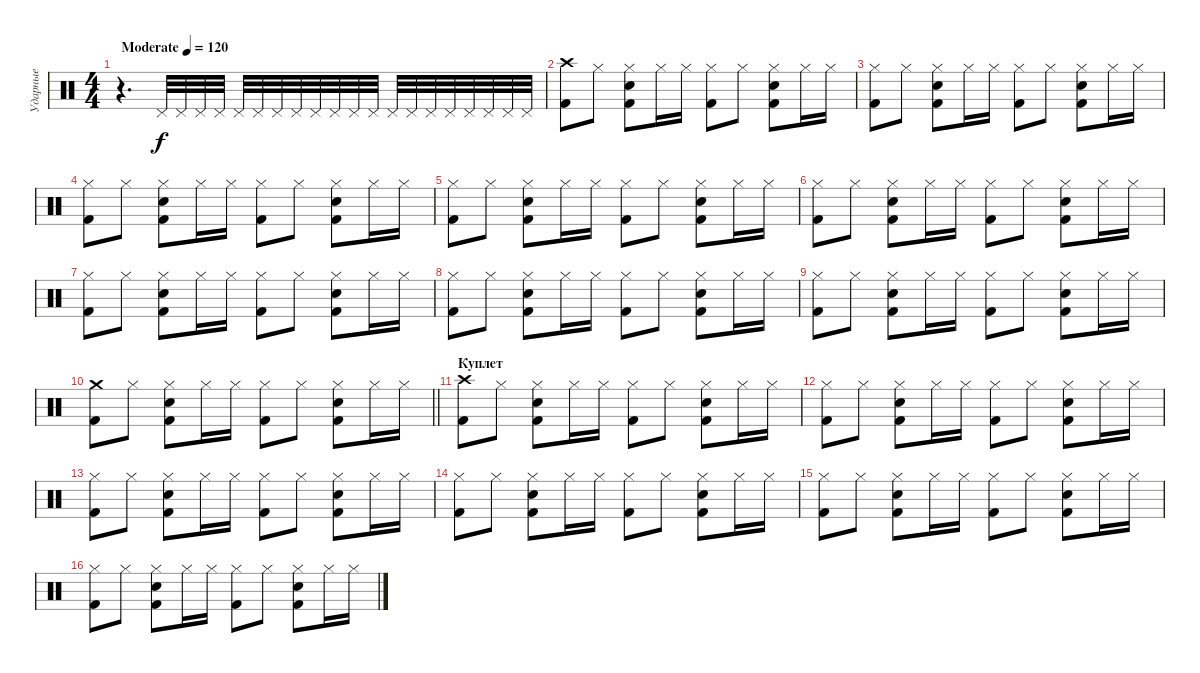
\track ("Ударные" "Ударные") {instrument percussion}
\staff {score}
\articulation defaults
\ts (4 4)
\tempo (120 "Moderate")
\clef neutral
\ks c
r.4{d dy f} "Pedal Hi-Hat (hit)".32{volume 4} "Pedal Hi-Hat (hit)".32{volume 4} "Pedal Hi-Hat (hit)".32 "Pedal Hi-Hat (hit)".32 "Pedal Hi-Hat (hit)".32{volume 5} "Pedal Hi-Hat (hit)".32 "Pedal Hi-Hat (hit)".32{volume 6} "Pedal Hi-Hat (hit)".32{volume 6} "Pedal Hi-Hat (hit)".32 "Pedal Hi-Hat (hit)".32{volume 7} "Pedal Hi-Hat (hit)".32{volume 8} "Pedal Hi-Hat (hit)".32{volume 9} "Pedal Hi-Hat (hit)".32{volume 10} "Pedal Hi-Hat (hit)".32{volume 10} "Pedal Hi-Hat (hit)".32{volume 11} "Pedal Hi-Hat (hit)".32 "Pedal Hi-Hat (hit)".32{volume 12} "Pedal Hi-Hat (hit)".32{volume 13} "Pedal Hi-Hat (hit)".32 "Pedal Hi-Hat (hit)".32 |
("Crash high (hit)" "Kick (hit) 2").8 "Hi-Hat (closed)".8 ("Hi-Hat (closed)" "Kick (hit) 2" "Electric Snare (hit)").8 "Hi-Hat (closed)".16 "Hi-Hat (closed)".16 ("Hi-Hat (closed)" "Kick (hit) 2").8 "Hi-Hat (closed)".8 ("Hi-Hat (closed)" "Kick (hit) 2" "Electric Snare (hit)").8 "Hi-Hat (closed)".16 "Hi-Hat (closed)".16 |
("Hi-Hat (closed)" "Kick (hit) 2").8 "Hi-Hat (closed)".8 ("Hi-Hat (closed)" "Kick (hit) 2" "Electric Snare (hit)").8 "Hi-Hat (closed)".16 "Hi-Hat (closed)".16 ("Hi-Hat (closed)" "Kick (hit) 2").8 "Hi-Hat (closed)".8 ("Hi-Hat (closed)" "Kick (hit) 2" "Electric Snare (hit)").8 "Hi-Hat (closed)".16 "Hi-Hat (closed)".16 |
("Hi-Hat (closed)" "Kick (hit) 2").8 "Hi-Hat (closed)".8 ("Hi-Hat (closed)" "Kick (hit) 2" "Electric Snare (hit)").8 "Hi-Hat (closed)".16 "Hi-Hat (closed)".16 ("Hi-Hat (closed)" "Kick (hit) 2").8 "Hi-Hat (closed)".8 ("Hi-Hat (closed)" "Kick (hit) 2" "Electric Snare (hit)").8 "Hi-Hat (closed)".16 "Hi-Hat (closed)".16 |
("Hi-Hat (closed)" "Kick (hit) 2").8 "Hi-Hat (closed)".8 ("Hi-Hat (closed)" "Kick (hit) 2" "Electric Snare (hit)").8 "Hi-Hat (closed)".16 "Hi-Hat (closed)".16 ("Hi-Hat (closed)" "Kick (hit) 2").8 "Hi-Hat (closed)".8 ("Hi-Hat (closed)" "Kick (hit) 2" "Electric Snare (hit)").8 "Hi-Hat (closed)".16 "Hi-Hat (closed)".16 |
("Hi-Hat (closed)" "Kick (hit) 2").8 "Hi-Hat (closed)".8 ("Hi-Hat (closed)" "Kick (hit) 2" "Electric Snare (hit)").8 "Hi-Hat (closed)".16 "Hi-Hat (closed)".16 ("Hi-Hat (closed)" "Kick (hit) 2").8 "Hi-Hat (closed)".8 ("Hi-Hat (closed)" "Kick (hit) 2" "Electric Snare (hit)").8 "Hi-Hat (closed)".16 "Hi-Hat (closed)".16 |
("Hi-Hat (closed)" "Kick (hit) 2").8 "Hi-Hat (closed)".8 ("Hi-Hat (closed)" "Kick (hit) 2" "Electric Snare (hit)").8 "Hi-Hat (closed)".16 "Hi-Hat (closed)".16 ("Hi-Hat (closed)" "Kick (hit) 2").8 "Hi-Hat (closed)".8 ("Hi-Hat (closed)" "Kick (hit) 2" "Electric Snare (hit)").8 "Hi-Hat (closed)".16 "Hi-Hat (closed)".16 |
("Hi-Hat (closed)" "Kick (hit) 2").8 "Hi-Hat (closed)".8 ("Hi-Hat (closed)" "Kick (hit) 2" "Electric Snare (hit)").8 "Hi-Hat (closed)".16 "Hi-Hat (closed)".16 ("Hi-Hat (closed)" "Kick (hit) 2").8 "Hi-Hat (closed)".8 ("Hi-Hat (closed)" "Kick (hit) 2" "Electric Snare (hit)").8 "Hi-Hat (closed)".16 "Hi-Hat (closed)".16 |
("Hi-Hat (closed)" "Kick (hit) 2").8 "Hi-Hat (closed)".8 ("Hi-Hat (closed)" "Kick (hit) 2" "Electric Snare (hit)").8 "Hi-Hat (closed)".16 "Hi-Hat (closed)".16 ("Hi-Hat (closed)" "Kick (hit) 2").8 "Hi-Hat (closed)".8 ("Hi-Hat (closed)" "Kick (hit) 2" "Electric Snare (hit)").8 "Hi-Hat (closed)".16 "Hi-Hat (closed)".16 |
\barLineRight lightlight
("Crash medium (hit)" "Kick (hit) 2").8 "Hi-Hat (closed)".8 ("Hi-Hat (closed)" "Kick (hit) 2" "Electric Snare (hit)").8 "Hi-Hat (closed)".16 "Hi-Hat (closed)".16 ("Hi-Hat (closed)" "Kick (hit) 2").8 "Hi-Hat (closed)".8 ("Hi-Hat (closed)" "Kick (hit) 2" "Electric Snare (hit)").8 "Hi-Hat (closed)".16 "Hi-Hat (closed)".16 |
\section ("" "Куплет")
("Crash high (hit)" "Kick (hit) 2").8 "Hi-Hat (closed)".8 ("Hi-Hat (closed)" "Kick (hit) 2" "Electric Snare (hit)").8 "Hi-Hat (closed)".16 "Hi-Hat (closed)".16 ("Hi-Hat (closed)" "Kick (hit) 2").8 "Hi-Hat (closed)".8 ("Hi-Hat (closed)" "Kick (hit) 2" "Electric Snare (hit)").8 "Hi-Hat (closed)".16 "Hi-Hat (closed)".16 |
("Hi-Hat (closed)" "Kick (hit) 2").8 "Hi-Hat (closed)".8 ("Hi-Hat (closed)" "Kick (hit) 2" "Electric Snare (hit)").8 "Hi-Hat (closed)".16 "Hi-Hat (closed)".16 ("Hi-Hat (closed)" "Kick (hit) 2").8 "Hi-Hat (closed)".8 ("Hi-Hat (closed)" "Kick (hit) 2" "Electric Snare (hit)").8 "Hi-Hat (closed)".16 "Hi-Hat (closed)".16 |
("Hi-Hat (closed)" "Kick (hit) 2").8 "Hi-Hat (closed)".8 ("Hi-Hat (closed)" "Kick (hit) 2" "Electric Snare (hit)").8 "Hi-Hat (closed)".16 "Hi-Hat (closed)".16 ("Hi-Hat (closed)" "Kick (hit) 2").8 "Hi-Hat (closed)".8 ("Hi-Hat (closed)" "Kick (hit) 2" "Electric Snare (hit)").8 "Hi-Hat (closed)".16 "Hi-Hat (closed)".16 |
("Hi-Hat (closed)" "Kick (hit) 2").8 "Hi-Hat (closed)".8 ("Hi-Hat (closed)" "Kick (hit) 2" "Electric Snare (hit)").8 "Hi-Hat (closed)".16 "Hi-Hat (closed)".16 ("Hi-Hat (closed)" "Kick (hit) 2").8 "Hi-Hat (closed)".8 ("Hi-Hat (closed)" "Kick (hit) 2" "Electric Snare (hit)").8 "Hi-Hat (closed)".16 "Hi-Hat (closed)".16 |
("Hi-Hat (closed)" "Kick (hit) 2").8 "Hi-Hat (closed)".8 ("Hi-Hat (closed)" "Kick (hit) 2" "Electric Snare (hit)").8 "Hi-Hat (closed)".16 "Hi-Hat (closed)".16 ("Hi-Hat (closed)" "Kick (hit) 2").8 "Hi-Hat (closed)".8 ("Hi-Hat (closed)" "Kick (hit) 2" "Electric Snare (hit)").8 "Hi-Hat (closed)".16 "Hi-Hat (closed)".16 |
("Hi-Hat (closed)" "Kick (hit) 2").8 "Hi-Hat (closed)".8 ("Hi-Hat (closed)" "Kick (hit) 2" "Electric Snare (hit)").8 "Hi-Hat (closed)".16 "Hi-Hat (closed)".16 ("Hi-Hat (closed)" "Kick (hit) 2").8 "Hi-Hat (closed)".8 ("Hi-Hat (closed)" "Kick (hit) 2" "Electric Snare (hit)").8 "Hi-Hat (closed)".16 "Hi-Hat (closed)".16
